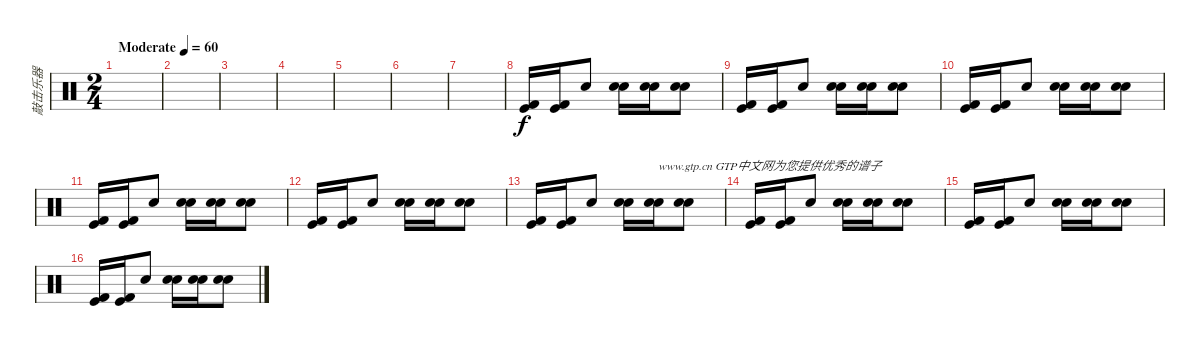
\track ("敲击乐器" "敲击乐器") {instrument percussion}
\staff {score}
\articulation defaults
\ts (2 4)
\tempo (60 "Moderate")
\clef neutral
\ks c
|
|
|
|
|
|
|
("Kick (hit) 2" "Kick (hit)").16 ("Kick (hit) 2" "Kick (hit)").16 "Hand Clap (hit)".8 ("Snare (hit) 2" "Snare (hit) 2").16 ("Snare (hit) 2" "Snare (hit) 2").16 ("Snare (hit) 2" "Hand Clap (hit)").8 |
("Kick (hit) 2" "Kick (hit)").16 ("Kick (hit) 2" "Kick (hit)").16 "Hand Clap (hit)".8 ("Snare (hit) 2" "Snare (hit) 2").16 ("Snare (hit) 2" "Snare (hit) 2").16 ("Snare (hit) 2" "Hand Clap (hit)").8 |
("Kick (hit) 2" "Kick (hit)").16 ("Kick (hit) 2" "Kick (hit)").16 "Hand Clap (hit)".8 ("Snare (hit) 2" "Snare (hit) 2").16 ("Snare (hit) 2" "Snare (hit) 2").16 ("Snare (hit) 2" "Hand Clap (hit)").8 |
("Kick (hit) 2" "Kick (hit)").16 ("Kick (hit) 2" "Kick (hit)").16 "Hand Clap (hit)".8 ("Snare (hit) 2" "Snare (hit) 2").16 ("Snare (hit) 2" "Snare (hit) 2").16 ("Snare (hit) 2" "Hand Clap (hit)").8 |
("Kick (hit) 2" "Kick (hit)").16 ("Kick (hit) 2" "Kick (hit)").16 "Hand Clap (hit)".8 ("Snare (hit) 2" "Snare (hit) 2").16 ("Snare (hit) 2" "Snare (hit) 2").16 ("Snare (hit) 2" "Hand Clap (hit)").8 |
("Kick (hit) 2" "Kick (hit)").16 ("Kick (hit) 2" "Kick (hit)").16 "Hand Clap (hit)".8 ("Snare (hit) 2" "Snare (hit) 2").16 ("Snare (hit) 2" "Snare (hit) 2").16{txt "www.gtp.cn GTP中文网为您提供优秀的谱子"} ("Snare (hit) 2" "Hand Clap (hit)").8 |
("Kick (hit) 2" "Kick (hit)").16 ("Kick (hit) 2" "Kick (hit)").16 "Hand Clap (hit)".8 ("Snare (hit) 2" "Snare (hit) 2").16 ("Snare (hit) 2" "Snare (hit) 2").16 ("Snare (hit) 2" "Hand Clap (hit)").8 |
("Kick (hit) 2" "Kick (hit)").16 ("Kick (hit) 2" "Kick (hit)").16 "Hand Clap (hit)".8 ("Snare (hit) 2" "Snare (hit) 2").16 ("Snare (hit) 2" "Snare (hit) 2").16 ("Snare (hit) 2" "Hand Clap (hit)").8 |
("Kick (hit) 2" "Kick (hit)").16 ("Kick (hit) 2" "Kick (hit)").16 "Hand Clap (hit)".8 ("Snare (hit) 2" "Snare (hit) 2").16 ("Snare (hit) 2" "Snare (hit) 2").16 ("Snare (hit) 2" "Hand Clap (hit)").8
